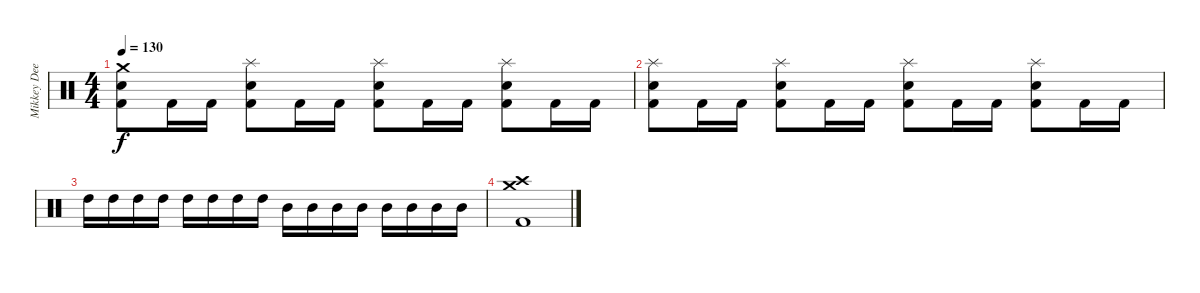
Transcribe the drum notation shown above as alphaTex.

\track ("Mikkey Dee" "Mikkey Dee") {instrument percussion}
\staff {score}
\articulation defaults
\ts (4 4)
\tempo 130
\clef neutral
\ks c
("Crash medium (hit)" "Snare (hit) 2" "Kick (hit) 2").8{dy f} "Kick (hit) 2".16 "Kick (hit) 2".16 ("Splash (hit)" "Snare (hit) 2" "Kick (hit) 2").8 "Kick (hit) 2".16 "Kick (hit) 2".16 ("Splash (hit)" "Snare (hit) 2" "Kick (hit) 2").8 "Kick (hit) 2".16 "Kick (hit) 2".16 ("Splash (hit)" "Snare (hit) 2" "Kick (hit) 2").8 "Kick (hit) 2".16 "Kick (hit) 2".16 |
("Splash (hit)" "Snare (hit) 2" "Kick (hit) 2").8 "Kick (hit) 2".16 "Kick (hit) 2".16 ("Splash (hit)" "Snare (hit) 2" "Kick (hit) 2").8 "Kick (hit) 2".16 "Kick (hit) 2".16 ("Splash (hit)" "Snare (hit) 2" "Kick (hit) 2").8 "Kick (hit) 2".16 "Kick (hit) 2".16 ("Splash (hit)" "Snare (hit) 2" "Kick (hit) 2").8 "Kick (hit) 2".16 "Kick (hit) 2".16 |
"High Tom (hit)".16 "High Tom (hit)".16 "High Tom (hit)".16 "High Tom (hit)".16 "High Tom (hit)".16 "High Tom (hit)".16 "High Tom (hit)".16 "High Tom (hit)".16 "Mid Tom (hit)".16 "Mid Tom (hit)".16 "Mid Tom (hit)".16 "Mid Tom (hit)".16 "Mid Tom (hit)".16 "Mid Tom (hit)".16 "Mid Tom (hit)".16 "Mid Tom (hit)".16 |
("Crash high (hit)" "Crash medium (hit)" "Kick (hit) 2").1
